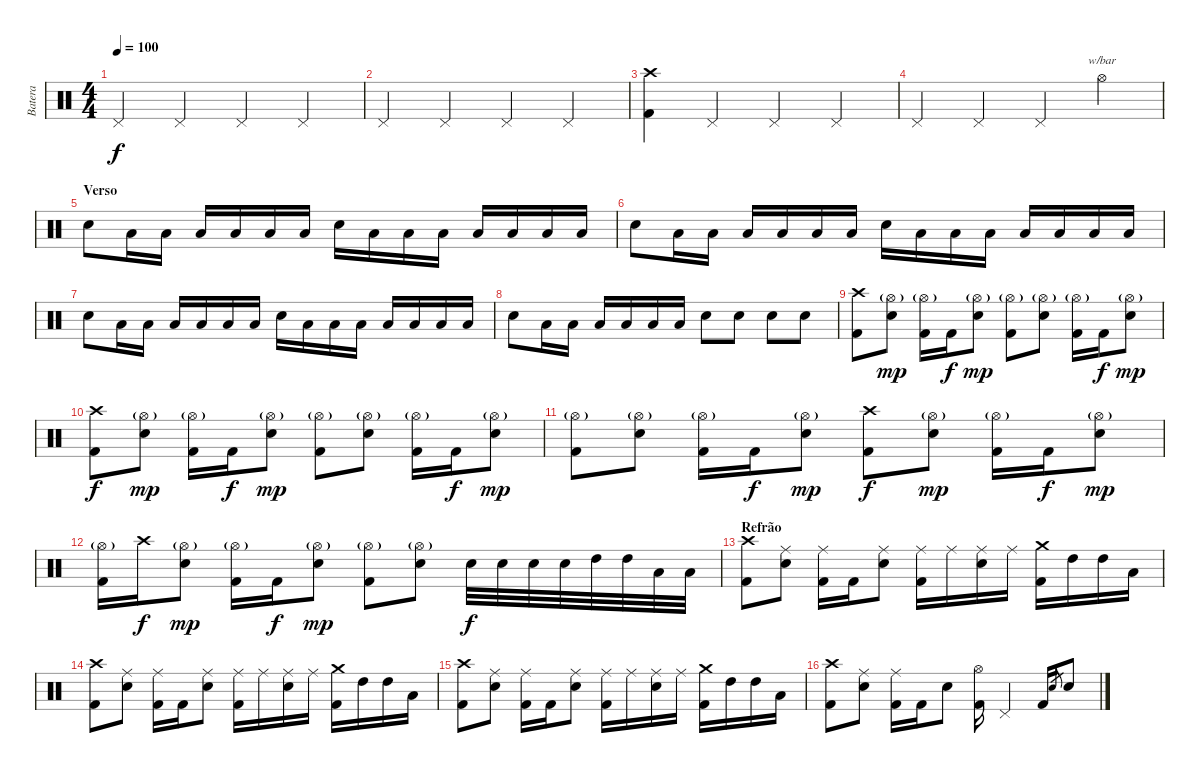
\track ("Batera" "Batera") {instrument percussion}
\staff {score}
\articulation defaults
\ts (4 4)
\tempo 100
\clef neutral
\ks c "Pedal Hi-Hat (hit)".4{dy f} "Pedal Hi-Hat (hit)".4 "Pedal Hi-Hat (hit)".4 "Pedal Hi-Hat (hit)".4
|
"Pedal Hi-Hat (hit)".4 "Pedal Hi-Hat (hit)".4 "Pedal Hi-Hat (hit)".4 "Pedal Hi-Hat (hit)".4 |
("Crash high (hit)" "Kick (hit) 2").4 "Pedal Hi-Hat (hit)".4 "Pedal Hi-Hat (hit)".4 "Pedal Hi-Hat (hit)".4 |
"Pedal Hi-Hat (hit)".4 "Pedal Hi-Hat (hit)".4 "Pedal Hi-Hat (hit)".4 "Hi-Hat (open)".4{tbe (custom default 0 0 45 2 60 2)} |
\section ("" "Verso")
"Electric Snare (hit)".8 "Low Tom (hit)".16 "Low Tom (hit)".16 "Low Tom (hit)".16 "Low Tom (hit)".16 "Low Tom (hit)".16 "Low Tom (hit)".16 "Electric Snare (hit)".16 "Low Tom (hit)".16 "Low Tom (hit)".16 "Low Tom (hit)".16 "Low Tom (hit)".16 "Low Tom (hit)".16 "Low Tom (hit)".16 "Low Tom (hit)".16 |
"Electric Snare (hit)".8 "Low Tom (hit)".16 "Low Tom (hit)".16 "Low Tom (hit)".16 "Low Tom (hit)".16 "Low Tom (hit)".16 "Low Tom (hit)".16 "Electric Snare (hit)".16 "Low Tom (hit)".16 "Low Tom (hit)".16 "Low Tom (hit)".16 "Low Tom (hit)".16 "Low Tom (hit)".16 "Low Tom (hit)".16 "Low Tom (hit)".16 |
"Electric Snare (hit)".8 "Low Tom (hit)".16 "Low Tom (hit)".16 "Low Tom (hit)".16 "Low Tom (hit)".16 "Low Tom (hit)".16 "Low Tom (hit)".16 "Electric Snare (hit)".16 "Low Tom (hit)".16 "Low Tom (hit)".16 "Low Tom (hit)".16 "Low Tom (hit)".16 "Low Tom (hit)".16 "Low Tom (hit)".16 "Low Tom (hit)".16 |
"Electric Snare (hit)".8 "Low Tom (hit)".16 "Low Tom (hit)".16 "Low Tom (hit)".16 "Low Tom (hit)".16 "Low Tom (hit)".16 "Low Tom (hit)".16 "Electric Snare (hit)".8 "Electric Snare (hit)".8 "Electric Snare (hit)".8 "Electric Snare (hit)".8 |
("Crash high (hit)" "Kick (hit) 2").8 ("Hi-Hat (open)"{g} "Electric Snare (hit)").8{dy mp} ("Hi-Hat (open)"{g} "Kick (hit) 2").16 "Kick (hit) 2".16{dy f} ("Hi-Hat (open)"{g} "Electric Snare (hit)").8{dy mp} ("Hi-Hat (open)"{g} "Kick (hit) 2").8 ("Hi-Hat (open)"{g} "Electric Snare (hit)").8 ("Hi-Hat (open)"{g} "Kick (hit) 2").16 "Kick (hit) 2".16{dy f} ("Hi-Hat (open)"{g} "Electric Snare (hit)").8{dy mp} |
("Crash high (hit)" "Kick (hit) 2").8{dy f} ("Hi-Hat (open)"{g} "Electric Snare (hit)").8{dy mp} ("Hi-Hat (open)"{g} "Kick (hit) 2").16 "Kick (hit) 2".16{dy f} ("Hi-Hat (open)"{g} "Electric Snare (hit)").8{dy mp} ("Hi-Hat (open)"{g} "Kick (hit) 2").8 ("Hi-Hat (open)"{g} "Electric Snare (hit)").8 ("Hi-Hat (open)"{g} "Kick (hit) 2").16 "Kick (hit) 2".16{dy f} ("Hi-Hat (open)"{g} "Electric Snare (hit)").8{dy mp} |
("Hi-Hat (open)"{g} "Kick (hit) 2").8 ("Hi-Hat (open)"{g} "Electric Snare (hit)").8 ("Hi-Hat (open)"{g} "Kick (hit) 2").16 "Kick (hit) 2".16{dy f} ("Hi-Hat (open)"{g} "Electric Snare (hit)").8{dy mp} ("Crash high (hit)" "Kick (hit) 2").8{dy f} ("Hi-Hat (open)"{g} "Electric Snare (hit)").8{dy mp} ("Hi-Hat (open)"{g} "Kick (hit) 2").16 "Kick (hit) 2".16{dy f} ("Hi-Hat (open)"{g} "Electric Snare (hit)").8{dy mp} |
("Hi-Hat (open)"{g} "Kick (hit) 2").16 "Crash high (hit)".16{dy f} ("Hi-Hat (open)"{g} "Electric Snare (hit)").8{dy mp} ("Hi-Hat (open)"{g} "Kick (hit) 2").16 "Kick (hit) 2".16{dy f} ("Hi-Hat (open)"{g} "Electric Snare (hit)").8{dy mp} ("Hi-Hat (open)"{g} "Kick (hit) 2").8 ("Hi-Hat (open)"{g} "Electric Snare (hit)").8 "Electric Snare (hit)".32{dy f} "Electric Snare (hit)".32 "Electric Snare (hit)".32 "Electric Snare (hit)".32 "High Tom (hit)".32 "High Tom (hit)".32 "Low Tom (hit)".32 "Low Tom (hit)".32 |
\section ("" "Refrão")
("Crash high (hit)" "Kick (hit) 2").8 ("Ride (middle)" "Electric Snare (hit)").8 ("Ride (middle)" "Kick (hit) 2").16 "Kick (hit) 2".16 ("Ride (middle)" "Electric Snare (hit)").8 ("Ride (middle)" "Kick (hit) 2").16 "Ride (middle)".16 ("Ride (middle)" "Electric Snare (hit)").16 "Ride (middle)".16 ("Crash medium (hit)" "Kick (hit) 2").16 "High Tom (hit)".16 "High Tom (hit)".16 "Low Tom (hit)".16 |
("Crash high (hit)" "Kick (hit) 2").8 ("Ride (middle)" "Electric Snare (hit)").8 ("Ride (middle)" "Kick (hit) 2").16 "Kick (hit) 2".16 ("Ride (middle)" "Electric Snare (hit)").8 ("Ride (middle)" "Kick (hit) 2").16 "Ride (middle)".16 ("Ride (middle)" "Electric Snare (hit)").16 "Ride (middle)".16 ("Crash medium (hit)" "Kick (hit) 2").16 "High Tom (hit)".16 "High Tom (hit)".16 "Low Tom (hit)".16 |
("Crash high (hit)" "Kick (hit) 2").8 ("Ride (middle)" "Electric Snare (hit)").8 ("Ride (middle)" "Kick (hit) 2").16 "Kick (hit) 2".16 ("Ride (middle)" "Electric Snare (hit)").8 ("Ride (middle)" "Kick (hit) 2").16 "Ride (middle)".16 ("Ride (middle)" "Electric Snare (hit)").16 "Ride (middle)".16 ("Crash medium (hit)" "Kick (hit) 2").16 "High Tom (hit)".16 "High Tom (hit)".16 "Low Tom (hit)".16 |
("Crash high (hit)" "Kick (hit) 2").8 ("Ride (middle)" "Electric Snare (hit)").8 ("Ride (middle)" "Kick (hit) 2").16 "Kick (hit) 2".16 "Electric Snare (hit)".8 ("Hi-Hat (open)" "Kick (hit) 2").16 "Pedal Hi-Hat (hit)".4 "Kick (hit) 2".16 "Electric Snare (hit)".8{gr} "Electric Snare (hit)".8
